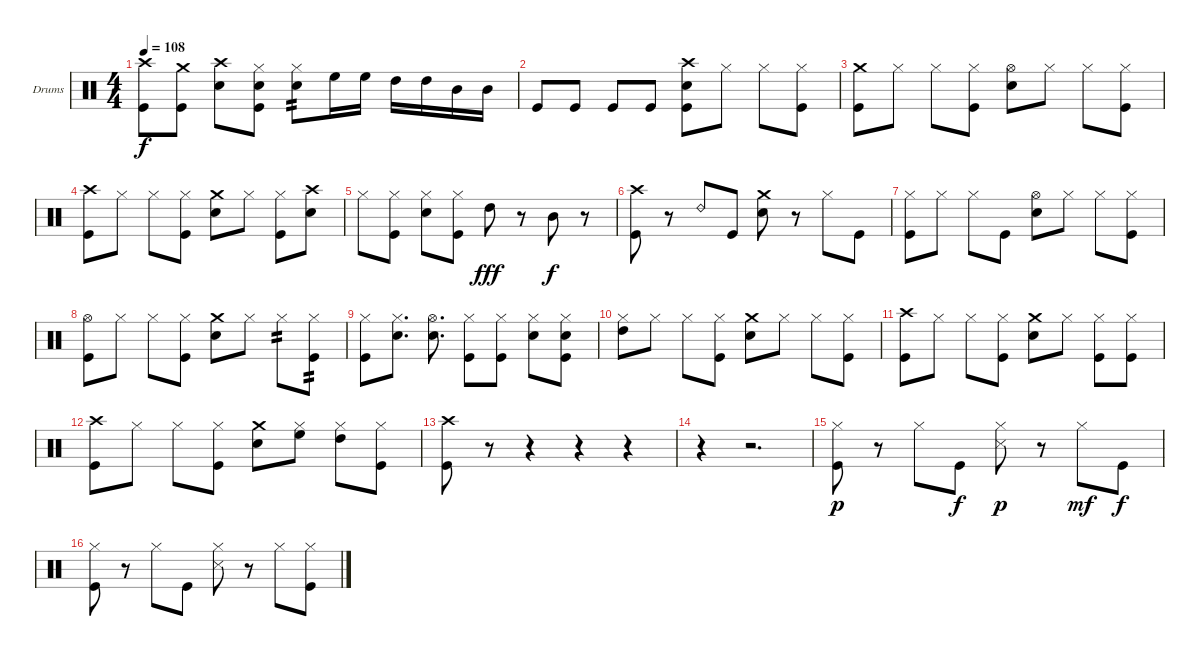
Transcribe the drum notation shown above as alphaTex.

\bracketExtendMode groupsimilarinstruments
\firstSystemTrackNameOrientation horizontal
\otherSystemsTrackNameOrientation horizontal
\track ("Drumkit" "Drums") {instrument percussion}
\staff {score}
\articulation defaults
\ts (4 4)
\tempo 108
\clef neutral
\ks c
("Crash high (hit)" "Kick (hit)").8{dy f} ("Crash medium (hit)" "Kick (hit)").8 ("Crash high (hit)" "Snare (hit) 2").8 ("Hi-Hat (closed)" "Snare (hit) 2" "Kick (hit)").8 ("Hi-Hat (closed)" "Snare (hit) 2").8{tp 2} "High Floor Tom (hit)".16 "High Floor Tom (hit)".16 "High Tom (hit)".16 "High Tom (hit)".16 "Mid Tom (hit)".16 "Mid Tom (hit)".16 |
"Kick (hit)".8 "Kick (hit)".8 "Kick (hit)".8 "Kick (hit)".8 ("Crash high (hit)" "Snare (hit) 2" "Kick (hit)").8 "Hi-Hat (closed)".8 "Hi-Hat (closed)".8 ("Hi-Hat (closed)" "Kick (hit)").8 |
("Crash medium (hit)" "Kick (hit)").8 "Hi-Hat (closed)".8 "Hi-Hat (closed)".8 ("Hi-Hat (closed)" "Kick (hit)").8 ("Hi-Hat (open)" "Snare (hit) 2").8 "Hi-Hat (closed)".8 "Hi-Hat (closed)".8 ("Hi-Hat (closed)" "Kick (hit)").8 |
("Crash high (hit)" "Kick (hit)").8 "Hi-Hat (closed)".8 "Hi-Hat (closed)".8 ("Hi-Hat (closed)" "Kick (hit)").8 ("Crash medium (hit)" "Snare (hit) 2").8 "Hi-Hat (closed)".8 ("Hi-Hat (closed)" "Kick (hit)").8 ("Crash high (hit)" "Snare (hit) 2").8 |
"Hi-Hat (closed)".8 ("Hi-Hat (closed)" "Kick (hit)").8 ("Hi-Hat (closed)" "Snare (hit) 2").8 ("Hi-Hat (closed)" "Kick (hit)").8 "High Tom (hit)".8{dy fff} r.8 "Mid Tom (hit)".8{dy f} r.8 |
("Crash high (hit)" "Kick (hit)").8 r.8 "Ride (bell) 2".8 "Kick (hit)".8 ("Crash medium (hit)" "Snare (hit) 2").8 r.8 "Hi-Hat (closed)".8 "Kick (hit)".8 |
("Hi-Hat (closed)" "Kick (hit)").8 "Hi-Hat (closed)".8 "Hi-Hat (closed)".8 "Kick (hit)".8 ("Hi-Hat (open)" "Snare (hit) 2").8 "Hi-Hat (closed)".8 "Hi-Hat (closed)".8 ("Hi-Hat (closed)" "Kick (hit)").8 |
("Hi-Hat (open)" "Kick (hit)").8 "Hi-Hat (closed)".8 "Hi-Hat (closed)".8 ("Hi-Hat (closed)" "Kick (hit)").8 ("Crash medium (hit)" "Snare (hit) 2").8 "Hi-Hat (closed)".8 "Hi-Hat (closed)".8{tp 2} ("Hi-Hat (closed)" "Kick (hit)").8{tp 2} |
("Hi-Hat (closed)" "Kick (hit)").8 ("Hi-Hat (closed)" "Snare (hit) 2").8{d} ("Hi-Hat (open)" "Snare (hit) 2").8{d} ("Hi-Hat (closed)" "Kick (hit)").8 ("Hi-Hat (closed)" "Kick (hit)").8 ("Hi-Hat (closed)" "Snare (hit) 2").8 ("Hi-Hat (closed)" "Snare (hit) 2" "Kick (hit)").8 |
("Hi-Hat (closed)" "High Tom (hit)").8 "Hi-Hat (closed)".8 "Hi-Hat (closed)".8 ("Hi-Hat (closed)" "Kick (hit)").8 ("Crash medium (hit)" "Snare (hit) 2").8 "Hi-Hat (closed)".8 "Hi-Hat (closed)".8 ("Hi-Hat (closed)" "Kick (hit)").8 |
("Crash high (hit)" "Kick (hit)").8 "Hi-Hat (closed)".8 "Hi-Hat (closed)".8 ("Hi-Hat (closed)" "Kick (hit)").8 ("Crash medium (hit)" "Snare (hit) 2").8 "Hi-Hat (closed)".8 ("Hi-Hat (closed)" "Kick (hit)").8 ("Hi-Hat (closed)" "Kick (hit)").8 |
("Crash high (hit)" "Kick (hit)").8 "Hi-Hat (closed)".8 "Hi-Hat (closed)".8 ("Hi-Hat (closed)" "Kick (hit)").8 ("Crash medium (hit)" "Snare (hit) 2").8 ("Hi-Hat (closed)" "High Floor Tom (hit)").8 ("Hi-Hat (closed)" "High Tom (hit)").8 ("Hi-Hat (closed)" "Kick (hit)").8 |
("Crash high (hit)" "Kick (hit)").8 r.8 r.4 r.4 r.4 |
r.4 r.2{d} |
("Hi-Hat (closed)" "Kick (hit)").8{dy p} r.8 "Hi-Hat (closed)".8 "Kick (hit)".8{dy f} ("Hi-Hat (closed)" "Snare (side stick) 3").8{dy p} r.8 "Hi-Hat (closed)".8{dy mf} "Kick (hit)".8{dy f} |
("Hi-Hat (closed)" "Kick (hit)").8 r.8 "Hi-Hat (closed)".8 "Kick (hit)".8 ("Hi-Hat (closed)" "Snare (side stick) 3").8 r.8 "Hi-Hat (closed)".8 ("Hi-Hat (closed)" "Kick (hit)").8
